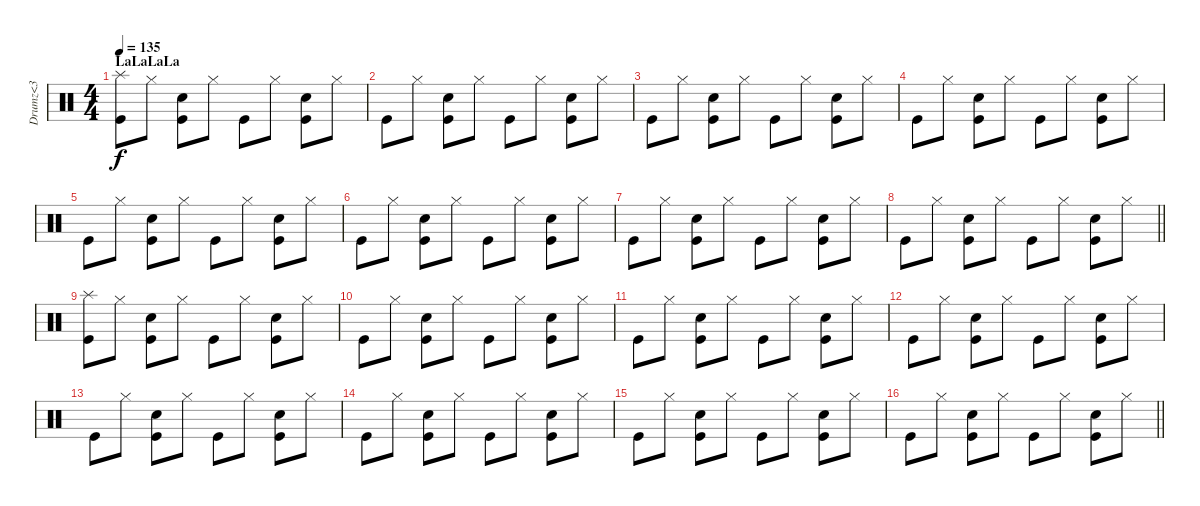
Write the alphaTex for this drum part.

\track ("Drumz<3" "Drumz<3") {instrument percussion}
\staff {score}
\articulation defaults
\ts (4 4)
\section ("" "LaLaLaLa")
\tempo 135
\clef neutral
\ks c
("Splash (hit)" "Kick (hit)").8{dy f} "Hi-Hat (closed)".8 ("Kick (hit)" "Snare (hit) 2").8 "Hi-Hat (closed)".8 "Kick (hit)".8 "Hi-Hat (closed)".8 ("Kick (hit)" "Snare (hit) 2").8 "Hi-Hat (closed)".8 |
"Kick (hit)".8 "Hi-Hat (closed)".8 ("Kick (hit)" "Snare (hit) 2").8 "Hi-Hat (closed)".8 "Kick (hit)".8 "Hi-Hat (closed)".8 ("Kick (hit)" "Snare (hit) 2").8 "Hi-Hat (closed)".8 |
"Kick (hit)".8 "Hi-Hat (closed)".8 ("Kick (hit)" "Snare (hit) 2").8 "Hi-Hat (closed)".8 "Kick (hit)".8 "Hi-Hat (closed)".8 ("Kick (hit)" "Snare (hit) 2").8 "Hi-Hat (closed)".8 |
"Kick (hit)".8 "Hi-Hat (closed)".8 ("Kick (hit)" "Snare (hit) 2").8 "Hi-Hat (closed)".8 "Kick (hit)".8 "Hi-Hat (closed)".8 ("Kick (hit)" "Snare (hit) 2").8 "Hi-Hat (closed)".8 |
"Kick (hit)".8 "Hi-Hat (closed)".8 ("Kick (hit)" "Snare (hit) 2").8 "Hi-Hat (closed)".8 "Kick (hit)".8 "Hi-Hat (closed)".8 ("Kick (hit)" "Snare (hit) 2").8 "Hi-Hat (closed)".8 |
"Kick (hit)".8 "Hi-Hat (closed)".8 ("Kick (hit)" "Snare (hit) 2").8 "Hi-Hat (closed)".8 "Kick (hit)".8 "Hi-Hat (closed)".8 ("Kick (hit)" "Snare (hit) 2").8 "Hi-Hat (closed)".8 |
"Kick (hit)".8 "Hi-Hat (closed)".8 ("Kick (hit)" "Snare (hit) 2").8 "Hi-Hat (closed)".8 "Kick (hit)".8 "Hi-Hat (closed)".8 ("Kick (hit)" "Snare (hit) 2").8 "Hi-Hat (closed)".8 |
\barLineRight lightlight "Kick (hit)".8 "Hi-Hat (closed)".8
("Kick (hit)" "Snare (hit) 2").8 "Hi-Hat (closed)".8 "Kick (hit)".8 "Hi-Hat (closed)".8 ("Kick (hit)" "Snare (hit) 2").8 "Hi-Hat (closed)".8 |
("Splash (hit)" "Kick (hit)").8 "Hi-Hat (closed)".8 ("Kick (hit)" "Snare (hit) 2").8 "Hi-Hat (closed)".8 "Kick (hit)".8 "Hi-Hat (closed)".8 ("Kick (hit)" "Snare (hit) 2").8 "Hi-Hat (closed)".8 |
"Kick (hit)".8 "Hi-Hat (closed)".8 ("Kick (hit)" "Snare (hit) 2").8 "Hi-Hat (closed)".8 "Kick (hit)".8 "Hi-Hat (closed)".8 ("Kick (hit)" "Snare (hit) 2").8 "Hi-Hat (closed)".8 |
"Kick (hit)".8 "Hi-Hat (closed)".8 ("Kick (hit)" "Snare (hit) 2").8 "Hi-Hat (closed)".8 "Kick (hit)".8 "Hi-Hat (closed)".8 ("Kick (hit)" "Snare (hit) 2").8 "Hi-Hat (closed)".8 |
"Kick (hit)".8 "Hi-Hat (closed)".8 ("Kick (hit)" "Snare (hit) 2").8 "Hi-Hat (closed)".8 "Kick (hit)".8 "Hi-Hat (closed)".8 ("Kick (hit)" "Snare (hit) 2").8 "Hi-Hat (closed)".8 |
"Kick (hit)".8 "Hi-Hat (closed)".8 ("Kick (hit)" "Snare (hit) 2").8 "Hi-Hat (closed)".8 "Kick (hit)".8 "Hi-Hat (closed)".8 ("Kick (hit)" "Snare (hit) 2").8 "Hi-Hat (closed)".8 |
"Kick (hit)".8 "Hi-Hat (closed)".8 ("Kick (hit)" "Snare (hit) 2").8 "Hi-Hat (closed)".8 "Kick (hit)".8 "Hi-Hat (closed)".8 ("Kick (hit)" "Snare (hit) 2").8 "Hi-Hat (closed)".8 |
"Kick (hit)".8 "Hi-Hat (closed)".8 ("Kick (hit)" "Snare (hit) 2").8 "Hi-Hat (closed)".8 "Kick (hit)".8 "Hi-Hat (closed)".8 ("Kick (hit)" "Snare (hit) 2").8 "Hi-Hat (closed)".8 |
\barLineRight lightlight "Kick (hit)".8 "Hi-Hat (closed)".8
("Kick (hit)" "Snare (hit) 2").8 "Hi-Hat (closed)".8 "Kick (hit)".8 "Hi-Hat (closed)".8 ("Kick (hit)" "Snare (hit) 2").8 "Hi-Hat (closed)".8
